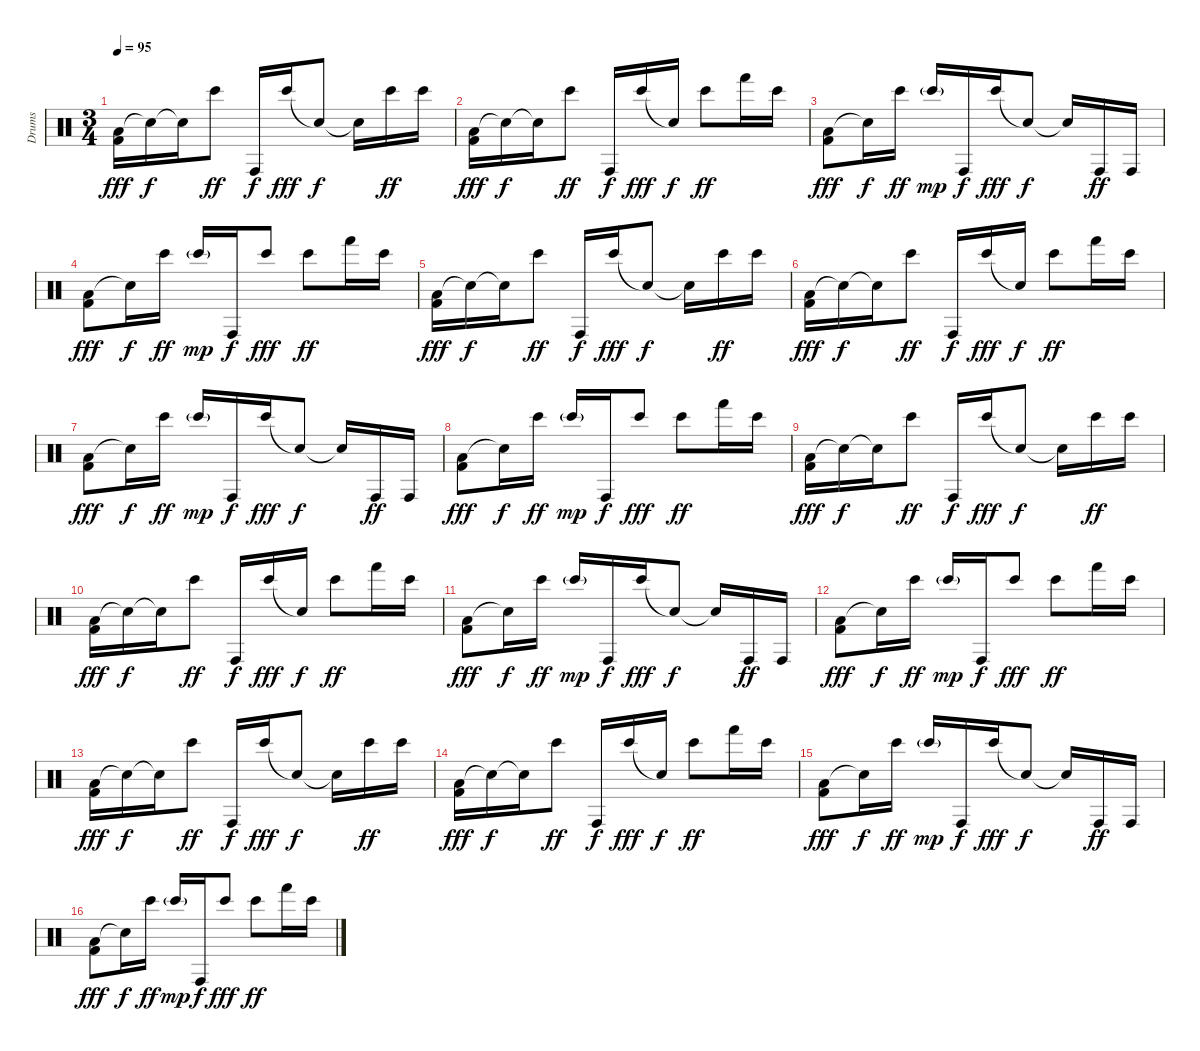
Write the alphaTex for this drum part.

\track ("Drums" "Drums") {instrument percussion}
\staff {score}
\articulation defaults
\ts (3 4)
\tempo 95
\clef neutral
\ks c
("Low Floor Tom (hit)" "Kick (hit) 2").16{dy fff} "Snare (hit)"{t}.16{dy f} "Snare (hit)"{t}.16 "Bongo High (hit)".8{dy ff} "Conga high (hit)".16{dy f} "Bongo High (hit)".16{dy fff} "Snare (hit)"{t}.8{dy f} "Snare (hit)"{t}.16 "Bongo High (hit)".16{dy ff} "Bongo High (hit)".16 |
("Low Floor Tom (hit)" "Kick (hit) 2").16{dy fff} "Snare (hit)"{t}.16{dy f} "Snare (hit)"{t}.16 "Bongo High (hit)".8{dy ff} "Conga high (hit)".16{dy f} "Bongo High (hit)".16{dy fff} "Snare (hit)"{t}.16{dy f} "Bongo High (hit)".8{dy ff} "Hand (hit)".16 "Bongo High (hit)".16 |
("Low Floor Tom (hit)" "Kick (hit) 2").8{dy fff} "Snare (hit)"{t}.16{dy f} "Bongo High (hit)".16{dy ff} "Bongo High (hit)"{g}.16{dy mp} "Conga high (hit)".16{dy f} "Bongo High (hit)".16{dy fff} "Snare (hit)"{t}.8{dy f} "Snare (hit)"{t}.16 "Conga high (hit)".16{dy ff} "Conga high (hit)".16 |
("Low Floor Tom (hit)" "Kick (hit) 2").8{dy fff} "Snare (hit)"{t}.16{dy f} "Bongo High (hit)".16{dy ff} "Bongo High (hit)"{g}.16{dy mp} "Conga high (hit)".16{dy f} "Bongo High (hit)".8{dy fff} "Bongo High (hit)".8{dy ff} "Hand (hit)".16 "Bongo High (hit)".16 |
("Low Floor Tom (hit)" "Kick (hit) 2").16{dy fff} "Snare (hit)"{t}.16{dy f} "Snare (hit)"{t}.16 "Bongo High (hit)".8{dy ff} "Conga high (hit)".16{dy f} "Bongo High (hit)".16{dy fff} "Snare (hit)"{t}.8{dy f} "Snare (hit)"{t}.16 "Bongo High (hit)".16{dy ff} "Bongo High (hit)".16 |
("Low Floor Tom (hit)" "Kick (hit) 2").16{dy fff} "Snare (hit)"{t}.16{dy f} "Snare (hit)"{t}.16 "Bongo High (hit)".8{dy ff} "Conga high (hit)".16{dy f} "Bongo High (hit)".16{dy fff} "Snare (hit)"{t}.16{dy f} "Bongo High (hit)".8{dy ff} "Hand (hit)".16 "Bongo High (hit)".16 |
("Low Floor Tom (hit)" "Kick (hit) 2").8{dy fff} "Snare (hit)"{t}.16{dy f} "Bongo High (hit)".16{dy ff} "Bongo High (hit)"{g}.16{dy mp} "Conga high (hit)".16{dy f} "Bongo High (hit)".16{dy fff} "Snare (hit)"{t}.8{dy f} "Snare (hit)"{t}.16 "Conga high (hit)".16{dy ff} "Conga high (hit)".16 |
("Low Floor Tom (hit)" "Kick (hit) 2").8{dy fff} "Snare (hit)"{t}.16{dy f} "Bongo High (hit)".16{dy ff} "Bongo High (hit)"{g}.16{dy mp} "Conga high (hit)".16{dy f} "Bongo High (hit)".8{dy fff} "Bongo High (hit)".8{dy ff} "Hand (hit)".16 "Bongo High (hit)".16 |
("Low Floor Tom (hit)" "Kick (hit) 2").16{dy fff} "Snare (hit)"{t}.16{dy f} "Snare (hit)"{t}.16 "Bongo High (hit)".8{dy ff} "Conga high (hit)".16{dy f} "Bongo High (hit)".16{dy fff} "Snare (hit)"{t}.8{dy f} "Snare (hit)"{t}.16 "Bongo High (hit)".16{dy ff} "Bongo High (hit)".16 |
("Low Floor Tom (hit)" "Kick (hit) 2").16{dy fff} "Snare (hit)"{t}.16{dy f} "Snare (hit)"{t}.16 "Bongo High (hit)".8{dy ff} "Conga high (hit)".16{dy f} "Bongo High (hit)".16{dy fff} "Snare (hit)"{t}.16{dy f} "Bongo High (hit)".8{dy ff} "Hand (hit)".16 "Bongo High (hit)".16 |
("Low Floor Tom (hit)" "Kick (hit) 2").8{dy fff} "Snare (hit)"{t}.16{dy f} "Bongo High (hit)".16{dy ff} "Bongo High (hit)"{g}.16{dy mp} "Conga high (hit)".16{dy f} "Bongo High (hit)".16{dy fff} "Snare (hit)"{t}.8{dy f} "Snare (hit)"{t}.16 "Conga high (hit)".16{dy ff} "Conga high (hit)".16 |
("Low Floor Tom (hit)" "Kick (hit) 2").8{dy fff} "Snare (hit)"{t}.16{dy f} "Bongo High (hit)".16{dy ff} "Bongo High (hit)"{g}.16{dy mp} "Conga high (hit)".16{dy f} "Bongo High (hit)".8{dy fff} "Bongo High (hit)".8{dy ff} "Hand (hit)".16 "Bongo High (hit)".16 |
("Low Floor Tom (hit)" "Kick (hit) 2").16{dy fff} "Snare (hit)"{t}.16{dy f} "Snare (hit)"{t}.16 "Bongo High (hit)".8{dy ff} "Conga high (hit)".16{dy f} "Bongo High (hit)".16{dy fff} "Snare (hit)"{t}.8{dy f} "Snare (hit)"{t}.16 "Bongo High (hit)".16{dy ff} "Bongo High (hit)".16 |
("Low Floor Tom (hit)" "Kick (hit) 2").16{dy fff} "Snare (hit)"{t}.16{dy f} "Snare (hit)"{t}.16 "Bongo High (hit)".8{dy ff} "Conga high (hit)".16{dy f} "Bongo High (hit)".16{dy fff} "Snare (hit)"{t}.16{dy f} "Bongo High (hit)".8{dy ff} "Hand (hit)".16 "Bongo High (hit)".16 |
("Low Floor Tom (hit)" "Kick (hit) 2").8{dy fff} "Snare (hit)"{t}.16{dy f} "Bongo High (hit)".16{dy ff} "Bongo High (hit)"{g}.16{dy mp} "Conga high (hit)".16{dy f} "Bongo High (hit)".16{dy fff} "Snare (hit)"{t}.8{dy f} "Snare (hit)"{t}.16 "Conga high (hit)".16{dy ff} "Conga high (hit)".16 |
("Low Floor Tom (hit)" "Kick (hit) 2").8{dy fff} "Snare (hit)"{t}.16{dy f} "Bongo High (hit)".16{dy ff} "Bongo High (hit)"{g}.16{dy mp} "Conga high (hit)".16{dy f} "Bongo High (hit)".8{dy fff} "Bongo High (hit)".8{dy ff} "Hand (hit)".16 "Bongo High (hit)".16
